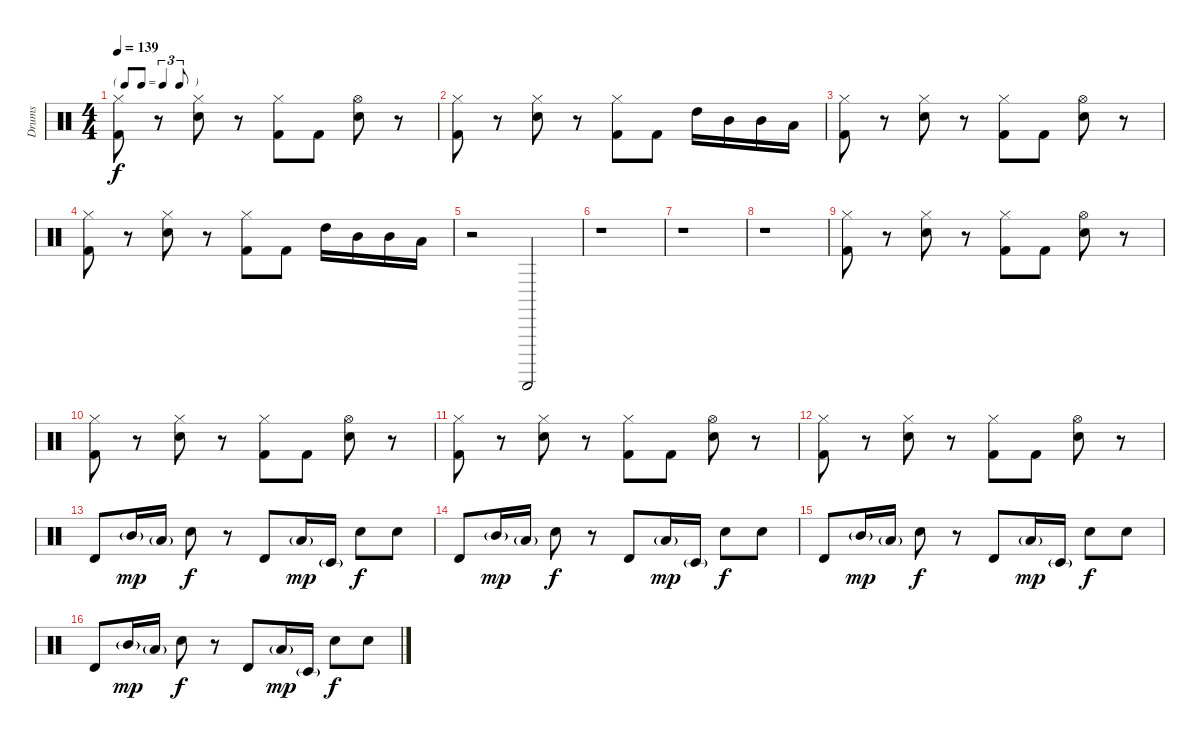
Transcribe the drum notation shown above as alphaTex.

\track ("Drums" "Drums") {instrument percussion}
\staff {score}
\articulation defaults
\ts (4 4)
\tf triplet8th
\tempo 139
\clef neutral
\ks c
("Hi-Hat (closed)" "Kick (hit) 2").8{dy f} r.8 ("Hi-Hat (closed)" "Snare (hit) 2").8 r.8 ("Hi-Hat (closed)" "Kick (hit) 2").8 "Kick (hit) 2".8 ("Hi-Hat (open)" "Snare (hit) 2").8 r.8 |
("Hi-Hat (closed)" "Kick (hit) 2").8 r.8 ("Hi-Hat (closed)" "Snare (hit) 2").8 r.8 ("Hi-Hat (closed)" "Kick (hit) 2").8 "Kick (hit) 2".8 "High Tom (hit)".16 "Mid Tom (hit)".16 "Mid Tom (hit)".16 "Low Tom (hit)".16 |
("Hi-Hat (closed)" "Kick (hit) 2").8 r.8 ("Hi-Hat (closed)" "Snare (hit) 2").8 r.8 ("Hi-Hat (closed)" "Kick (hit) 2").8 "Kick (hit) 2".8 ("Hi-Hat (open)" "Snare (hit) 2").8 r.8 |
("Hi-Hat (closed)" "Kick (hit) 2").8 r.8 ("Hi-Hat (closed)" "Snare (hit) 2").8 r.8 ("Hi-Hat (closed)" "Kick (hit) 2").8 "Kick (hit) 2".8 "High Tom (hit)".16 "Mid Tom (hit)".16 "Mid Tom (hit)".16 "Low Tom (hit)".16 |
r.2 "Guiro (scrap-return)".2 |
r.1 |
r.1 |
r.1 |
("Hi-Hat (closed)" "Kick (hit) 2").8 r.8 ("Hi-Hat (closed)" "Snare (hit) 2").8 r.8 ("Hi-Hat (closed)" "Kick (hit) 2").8 "Kick (hit) 2".8 ("Hi-Hat (open)" "Snare (hit) 2").8 r.8 |
("Hi-Hat (closed)" "Kick (hit) 2").8 r.8 ("Hi-Hat (closed)" "Snare (hit) 2").8 r.8 ("Hi-Hat (closed)" "Kick (hit) 2").8 "Kick (hit) 2".8 ("Hi-Hat (open)" "Snare (hit) 2").8 r.8 |
("Hi-Hat (closed)" "Kick (hit) 2").8 r.8 ("Hi-Hat (closed)" "Snare (hit) 2").8 r.8 ("Hi-Hat (closed)" "Kick (hit) 2").8 "Kick (hit) 2".8 ("Hi-Hat (open)" "Snare (hit) 2").8 r.8 |
("Hi-Hat (closed)" "Kick (hit) 2").8 r.8 ("Hi-Hat (closed)" "Snare (hit) 2").8 r.8 ("Hi-Hat (closed)" "Kick (hit) 2").8 "Kick (hit) 2".8 ("Hi-Hat (open)" "Snare (hit) 2").8 r.8 |
"Timbale high (hit)".8 "Mid Tom (hit)"{g}.16{dy mp} "Low Tom (hit)"{g}.16 "Electric Snare (hit)".8{dy f} r.8 "Timbale high (hit)".8 "Low Tom (hit)"{g}.16{dy mp} "Timbale low (hit)"{g}.16 "Electric Snare (hit)".8{dy f} "Electric Snare (hit)".8 |
"Timbale high (hit)".8 "Mid Tom (hit)"{g}.16{dy mp} "Low Tom (hit)"{g}.16 "Electric Snare (hit)".8{dy f} r.8 "Timbale high (hit)".8 "Low Tom (hit)"{g}.16{dy mp} "Timbale low (hit)"{g}.16 "Electric Snare (hit)".8{dy f} "Electric Snare (hit)".8 |
"Timbale high (hit)".8 "Mid Tom (hit)"{g}.16{dy mp} "Low Tom (hit)"{g}.16 "Electric Snare (hit)".8{dy f} r.8 "Timbale high (hit)".8 "Low Tom (hit)"{g}.16{dy mp} "Timbale low (hit)"{g}.16 "Electric Snare (hit)".8{dy f} "Electric Snare (hit)".8 |
"Timbale high (hit)".8 "Mid Tom (hit)"{g}.16{dy mp} "Low Tom (hit)"{g}.16 "Electric Snare (hit)".8{dy f} r.8 "Timbale high (hit)".8 "Low Tom (hit)"{g}.16{dy mp} "Timbale low (hit)"{g}.16 "Electric Snare (hit)".8{dy f} "Electric Snare (hit)".8
